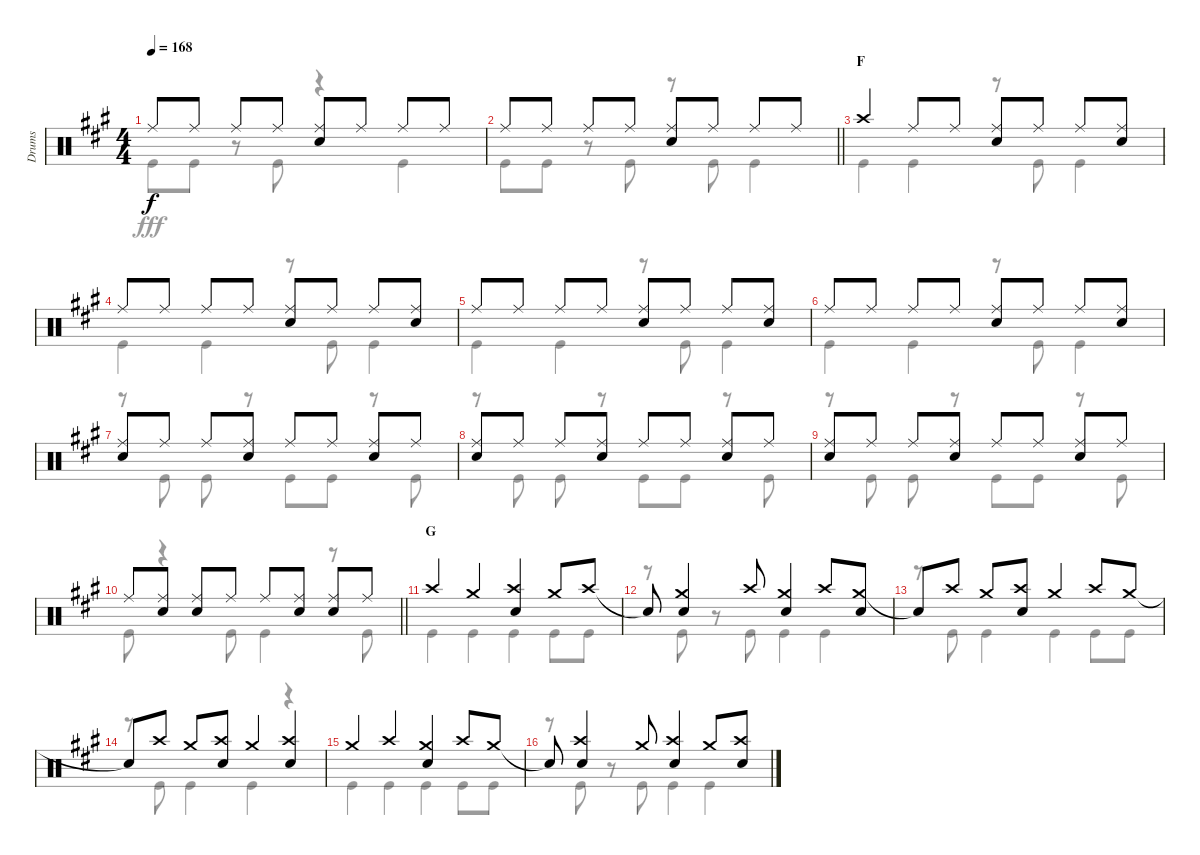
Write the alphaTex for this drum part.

\track ("Drums" "Drums") {instrument percussion}
\staff {score}
\articulation defaults
\voice
\ts (4 4)
\tempo 168
\clef neutral
\ks a "Ride (middle)".8{dy f} "Ride (middle)".8 "Ride (middle)".8 "Ride (middle)".8
("Ride (middle)" "Snare (hit) 2").8 "Ride (middle)".8 "Ride (middle)".8 "Ride (middle)".8 |
\barLineRight lightlight "Ride (middle)".8 "Ride (middle)".8 "Ride (middle)".8 "Ride (middle)".8
("Ride (middle)" "Snare (hit) 2").8 "Ride (middle)".8 "Ride (middle)".8 "Ride (middle)".8 |
\section ("" "F")
"Crash high (hit)".4 "Ride (middle)".8 "Ride (middle)".8 ("Ride (middle)" "Snare (hit) 2").8 "Ride (middle)".8 "Ride (middle)".8 ("Ride (middle)" "Snare (hit) 2").8 |
"Ride (middle)".8 "Ride (middle)".8 "Ride (middle)".8 "Ride (middle)".8 ("Ride (middle)" "Snare (hit) 2").8 "Ride (middle)".8 "Ride (middle)".8 ("Ride (middle)" "Snare (hit) 2").8 |
"Ride (middle)".8 "Ride (middle)".8 "Ride (middle)".8 "Ride (middle)".8 ("Ride (middle)" "Snare (hit) 2").8 "Ride (middle)".8 "Ride (middle)".8 ("Ride (middle)" "Snare (hit) 2").8 |
"Ride (middle)".8 "Ride (middle)".8 "Ride (middle)".8 "Ride (middle)".8 ("Ride (middle)" "Snare (hit) 2").8 "Ride (middle)".8 "Ride (middle)".8 ("Ride (middle)" "Snare (hit) 2").8 |
("Ride (middle)" "Snare (hit) 2").8 "Ride (middle)".8 "Ride (middle)".8 ("Ride (middle)" "Snare (hit) 2").8 "Ride (middle)".8 "Ride (middle)".8 ("Ride (middle)" "Snare (hit) 2").8 "Ride (middle)".8 |
("Ride (middle)" "Snare (hit) 2").8 "Ride (middle)".8 "Ride (middle)".8 ("Ride (middle)" "Snare (hit) 2").8 "Ride (middle)".8 "Ride (middle)".8 ("Ride (middle)" "Snare (hit) 2").8 "Ride (middle)".8 |
("Ride (middle)" "Snare (hit) 2").8 "Ride (middle)".8 "Ride (middle)".8 ("Ride (middle)" "Snare (hit) 2").8 "Ride (middle)".8 "Ride (middle)".8 ("Ride (middle)" "Snare (hit) 2").8 "Ride (middle)".8 |
\barLineRight lightlight "Ride (middle)".8
("Ride (middle)" "Snare (hit) 2").8 ("Ride (middle)" "Snare (hit) 2").8 "Ride (middle)".8 "Ride (middle)".8 ("Ride (middle)" "Snare (hit) 2").8 ("Ride (middle)" "Snare (hit) 2").8 "Ride (middle)".8 |
\section ("" "G")
"Crash high (hit)".4 "Crash medium (hit)".4 ("Crash high (hit)" "Snare (hit) 2").4 "Crash medium (hit)".8 "Crash high (hit)".8 |
"Snare (hit)"{t}.8 ("Crash medium (hit)" "Snare (hit) 2").4 "Crash high (hit)".8 ("Crash medium (hit)" "Snare (hit) 2").4 "Crash high (hit)".8 ("Crash medium (hit)" "Snare (hit) 2").8 |
"Snare (hit)"{t}.8 "Crash high (hit)".8 "Crash medium (hit)".8 ("Crash high (hit)" "Snare (hit) 2").8 "Crash medium (hit)".4 "Crash high (hit)".8 "Crash medium (hit)".8 |
"Snare (hit)"{t}.8 "Crash high (hit)".8 "Crash medium (hit)".8 ("Crash high (hit)" "Snare (hit) 2").8 "Crash medium (hit)".4 ("Crash high (hit)" "Snare (hit) 2").4 |
"Crash medium (hit)".4 "Crash high (hit)".4 ("Crash medium (hit)" "Snare (hit) 2").4 "Crash high (hit)".8 "Crash medium (hit)".8 |
"Snare (hit)"{t}.8 ("Crash high (hit)" "Snare (hit) 2").4 "Crash medium (hit)".8 ("Crash high (hit)" "Snare (hit) 2").4 "Crash medium (hit)".8 ("Crash high (hit)" "Snare (hit) 2").8
\voice
\clef neutral
\ottava regular
\simile none
\ks a "Kick (hit)".8{dy fff} "Kick (hit)".8
r.8 "Kick (hit)".8 r.4 "Kick (hit)".4 |
\barLineRight lightlight "Kick (hit)".8 "Kick (hit)".8
r.8 "Kick (hit)".8 r.8 "Kick (hit)".8 "Kick (hit)".4 |
"Kick (hit)".4 "Kick (hit)".4 r.8 "Kick (hit)".8 "Kick (hit)".4 |
"Kick (hit)".4 "Kick (hit)".4 r.8 "Kick (hit)".8 "Kick (hit)".4 |
"Kick (hit)".4 "Kick (hit)".4 r.8 "Kick (hit)".8 "Kick (hit)".4 |
"Kick (hit)".4 "Kick (hit)".4 r.8 "Kick (hit)".8 "Kick (hit)".4 |
r.8 "Kick (hit)".8 "Kick (hit)".8 r.8 "Kick (hit)".8 "Kick (hit)".8 r.8 "Kick (hit)".8 |
r.8 "Kick (hit)".8 "Kick (hit)".8 r.8 "Kick (hit)".8 "Kick (hit)".8 r.8 "Kick (hit)".8 |
r.8 "Kick (hit)".8 "Kick (hit)".8 r.8 "Kick (hit)".8 "Kick (hit)".8 r.8 "Kick (hit)".8 |
\barLineRight lightlight "Kick (hit)".8
r.4 "Kick (hit)".8 "Kick (hit)".4 r.8 "Kick (hit)".8 |
"Kick (hit)".4 "Kick (hit)".4 "Kick (hit)".4 "Kick (hit)".8 "Kick (hit)".8 |
r.8 "Kick (hit)".8 r.8 "Kick (hit)".8 "Kick (hit)".4 "Kick (hit)".4 |
r.8 "Kick (hit)".8 "Kick (hit)".4 "Kick (hit)".4 "Kick (hit)".8 "Kick (hit)".8 |
r.8 "Kick (hit)".8 "Kick (hit)".4 "Kick (hit)".4 r.4 |
"Kick (hit)".4 "Kick (hit)".4 "Kick (hit)".4 "Kick (hit)".8 "Kick (hit)".8 |
r.8 "Kick (hit)".8 r.8 "Kick (hit)".8 "Kick (hit)".4 "Kick (hit)".4
